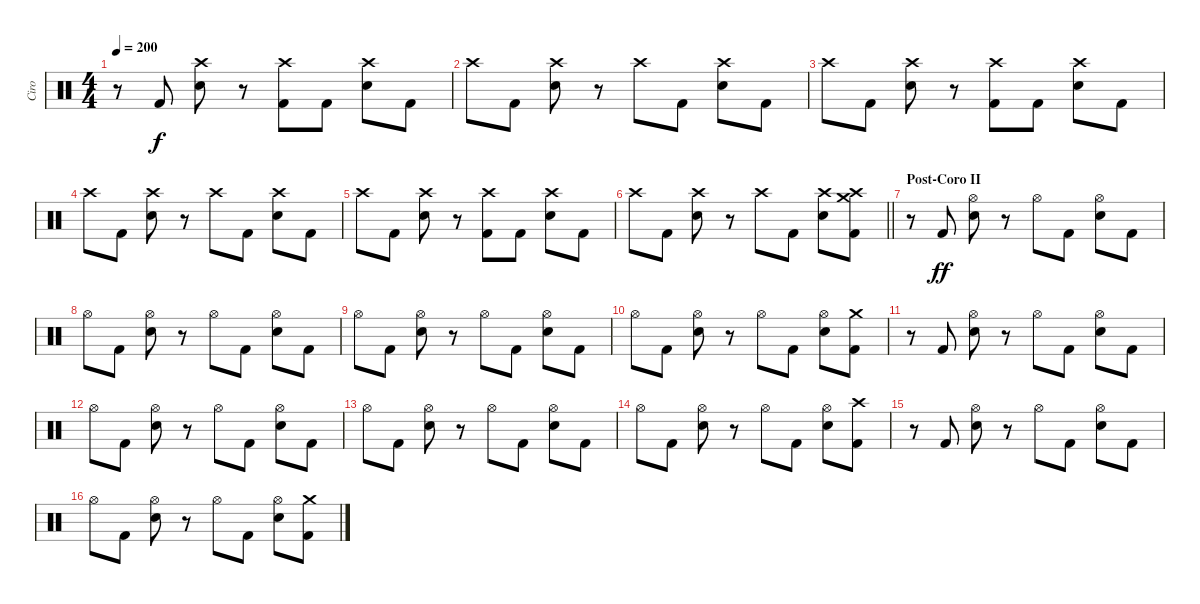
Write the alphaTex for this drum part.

\track ("Ciro" "Ciro") {instrument percussion}
\staff {score}
\articulation defaults
\ts (4 4)
\tempo 200
\clef neutral
\ks c
r.8{dy f} "Kick (hit) 2".8 ("Crash high (hit)" "Snare (hit) 2").8 r.8 ("Crash high (hit)" "Kick (hit) 2").8 "Kick (hit) 2".8 ("Crash high (hit)" "Snare (hit) 2").8 "Kick (hit) 2".8 |
"Crash high (hit)".8 "Kick (hit) 2".8 ("Crash high (hit)" "Snare (hit) 2").8 r.8 "Crash high (hit)".8 "Kick (hit) 2".8 ("Crash high (hit)" "Snare (hit) 2").8 "Kick (hit) 2".8 |
"Crash high (hit)".8 "Kick (hit) 2".8 ("Crash high (hit)" "Snare (hit) 2").8 r.8 ("Crash high (hit)" "Kick (hit) 2").8 "Kick (hit) 2".8 ("Crash high (hit)" "Snare (hit) 2").8 "Kick (hit) 2".8 |
"Crash high (hit)".8 "Kick (hit) 2".8 ("Crash high (hit)" "Snare (hit) 2").8 r.8 "Crash high (hit)".8 "Kick (hit) 2".8 ("Crash high (hit)" "Snare (hit) 2").8 "Kick (hit) 2".8 |
"Crash high (hit)".8 "Kick (hit) 2".8 ("Crash high (hit)" "Snare (hit) 2").8 r.8 ("Crash high (hit)" "Kick (hit) 2").8 "Kick (hit) 2".8 ("Crash high (hit)" "Snare (hit) 2").8 "Kick (hit) 2".8 |
\barLineRight lightlight "Crash high (hit)".8 "Kick (hit) 2".8
("Crash high (hit)" "Snare (hit) 2").8 r.8 "Crash high (hit)".8 "Kick (hit) 2".8 ("Crash high (hit)" "Snare (hit) 2").8 ("Crash high (hit)" "Crash medium (hit)" "Kick (hit) 2").8 |
\section ("" "Post-Coro II")
r.8 "Kick (hit) 2".8{dy ff} ("Hi-Hat (open)" "Snare (hit) 2").8 r.8 "Hi-Hat (open)".8 "Kick (hit) 2".8 ("Hi-Hat (open)" "Snare (hit) 2").8 "Kick (hit) 2".8 |
"Hi-Hat (open)".8 "Kick (hit) 2".8 ("Hi-Hat (open)" "Snare (hit) 2").8 r.8 "Hi-Hat (open)".8 "Kick (hit) 2".8 ("Hi-Hat (open)" "Snare (hit) 2").8 "Kick (hit) 2".8 |
"Hi-Hat (open)".8 "Kick (hit) 2".8 ("Hi-Hat (open)" "Snare (hit) 2").8 r.8 "Hi-Hat (open)".8 "Kick (hit) 2".8 ("Hi-Hat (open)" "Snare (hit) 2").8 "Kick (hit) 2".8 |
"Hi-Hat (open)".8 "Kick (hit) 2".8 ("Hi-Hat (open)" "Snare (hit) 2").8 r.8 "Hi-Hat (open)".8 "Kick (hit) 2".8 ("Hi-Hat (open)" "Snare (hit) 2").8 ("Crash medium (hit)" "Kick (hit) 2").8 |
r.8 "Kick (hit) 2".8 ("Hi-Hat (open)" "Snare (hit) 2").8 r.8 "Hi-Hat (open)".8 "Kick (hit) 2".8 ("Hi-Hat (open)" "Snare (hit) 2").8 "Kick (hit) 2".8 |
"Hi-Hat (open)".8 "Kick (hit) 2".8 ("Hi-Hat (open)" "Snare (hit) 2").8 r.8 "Hi-Hat (open)".8 "Kick (hit) 2".8 ("Hi-Hat (open)" "Snare (hit) 2").8 "Kick (hit) 2".8 |
"Hi-Hat (open)".8 "Kick (hit) 2".8 ("Hi-Hat (open)" "Snare (hit) 2").8 r.8 "Hi-Hat (open)".8 "Kick (hit) 2".8 ("Hi-Hat (open)" "Snare (hit) 2").8 "Kick (hit) 2".8 |
"Hi-Hat (open)".8 "Kick (hit) 2".8 ("Hi-Hat (open)" "Snare (hit) 2").8 r.8 "Hi-Hat (open)".8 "Kick (hit) 2".8 ("Hi-Hat (open)" "Snare (hit) 2").8 ("Crash high (hit)" "Kick (hit) 2").8 |
r.8 "Kick (hit) 2".8 ("Hi-Hat (open)" "Snare (hit) 2").8 r.8 "Hi-Hat (open)".8 "Kick (hit) 2".8 ("Hi-Hat (open)" "Snare (hit) 2").8 "Kick (hit) 2".8 |
"Hi-Hat (open)".8 "Kick (hit) 2".8 ("Hi-Hat (open)" "Snare (hit) 2").8 r.8 "Hi-Hat (open)".8 "Kick (hit) 2".8 ("Hi-Hat (open)" "Snare (hit) 2").8 ("Crash medium (hit)" "Kick (hit) 2").8
